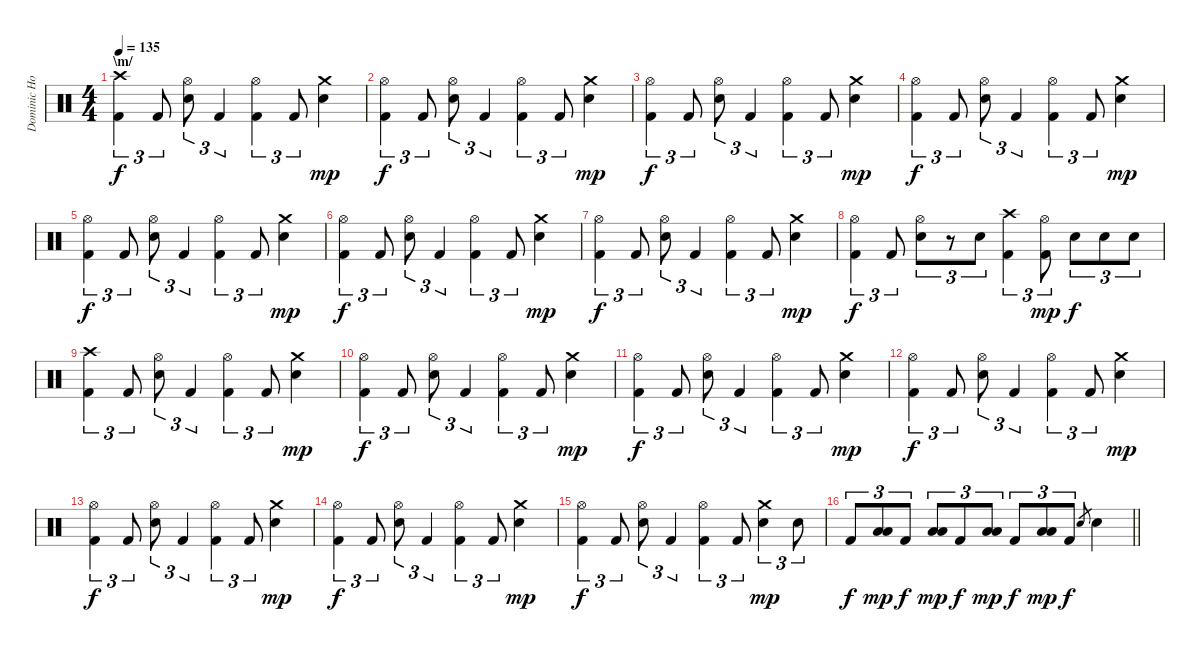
\track ("Dominic Howard (Drums)" "Dominic Ho") {instrument percussion}
\staff {score}
\articulation defaults
\ts (4 4)
\section ("" "\\m/")
\tempo 135
\clef neutral
\ks c
("Crash high (hit)" "Kick (hit) 2").4{tu (3 2) dy f} "Kick (hit) 2".8{tu (3 2)} ("Hi-Hat (open)" "Electric Snare (hit)").8{tu (3 2)} "Kick (hit) 2".4{tu (3 2)} ("Hi-Hat (open)" "Kick (hit) 2").4{tu (3 2)} "Kick (hit) 2".8{tu (3 2)} ("Crash medium (hit)" "Electric Snare (hit)").4{dy mp} |
("Hi-Hat (open)" "Kick (hit) 2").4{tu (3 2) dy f} "Kick (hit) 2".8{tu (3 2)} ("Hi-Hat (open)" "Electric Snare (hit)").8{tu (3 2)} "Kick (hit) 2".4{tu (3 2)} ("Hi-Hat (open)" "Kick (hit) 2").4{tu (3 2)} "Kick (hit) 2".8{tu (3 2)} ("Crash medium (hit)" "Electric Snare (hit)").4{dy mp} |
("Hi-Hat (open)" "Kick (hit) 2").4{tu (3 2) dy f} "Kick (hit) 2".8{tu (3 2)} ("Hi-Hat (open)" "Electric Snare (hit)").8{tu (3 2)} "Kick (hit) 2".4{tu (3 2)} ("Hi-Hat (open)" "Kick (hit) 2").4{tu (3 2)} "Kick (hit) 2".8{tu (3 2)} ("Crash medium (hit)" "Electric Snare (hit)").4{dy mp} |
("Hi-Hat (open)" "Kick (hit) 2").4{tu (3 2) dy f} "Kick (hit) 2".8{tu (3 2)} ("Hi-Hat (open)" "Electric Snare (hit)").8{tu (3 2)} "Kick (hit) 2".4{tu (3 2)} ("Hi-Hat (open)" "Kick (hit) 2").4{tu (3 2)} "Kick (hit) 2".8{tu (3 2)} ("Crash medium (hit)" "Electric Snare (hit)").4{dy mp} |
("Hi-Hat (open)" "Kick (hit) 2").4{tu (3 2) dy f} "Kick (hit) 2".8{tu (3 2)} ("Hi-Hat (open)" "Electric Snare (hit)").8{tu (3 2)} "Kick (hit) 2".4{tu (3 2)} ("Hi-Hat (open)" "Kick (hit) 2").4{tu (3 2)} "Kick (hit) 2".8{tu (3 2)} ("Crash medium (hit)" "Electric Snare (hit)").4{dy mp} |
("Hi-Hat (open)" "Kick (hit) 2").4{tu (3 2) dy f} "Kick (hit) 2".8{tu (3 2)} ("Hi-Hat (open)" "Electric Snare (hit)").8{tu (3 2)} "Kick (hit) 2".4{tu (3 2)} ("Hi-Hat (open)" "Kick (hit) 2").4{tu (3 2)} "Kick (hit) 2".8{tu (3 2)} ("Crash medium (hit)" "Electric Snare (hit)").4{dy mp} |
("Hi-Hat (open)" "Kick (hit) 2").4{tu (3 2) dy f} "Kick (hit) 2".8{tu (3 2)} ("Hi-Hat (open)" "Electric Snare (hit)").8{tu (3 2)} "Kick (hit) 2".4{tu (3 2)} ("Hi-Hat (open)" "Kick (hit) 2").4{tu (3 2)} "Kick (hit) 2".8{tu (3 2)} ("Crash medium (hit)" "Electric Snare (hit)").4{dy mp} |
("Hi-Hat (open)" "Kick (hit) 2").4{tu (3 2) dy f} "Kick (hit) 2".8{tu (3 2)} ("Hi-Hat (open)" "Electric Snare (hit)").8{tu (3 2)} r.8{tu (3 2)} "Electric Snare (hit)".8{tu (3 2)} ("Crash high (hit)" "Kick (hit) 2").4{tu (3 2)} ("Hi-Hat (open)" "Kick (hit) 2").8{tu (3 2) dy mp} "Electric Snare (hit)".8{tu (3 2) dy f} "Electric Snare (hit)".8{tu (3 2)} "Electric Snare (hit)".8{tu (3 2)} |
("Crash high (hit)" "Kick (hit) 2").4{tu (3 2)} "Kick (hit) 2".8{tu (3 2)} ("Hi-Hat (open)" "Electric Snare (hit)").8{tu (3 2)} "Kick (hit) 2".4{tu (3 2)} ("Hi-Hat (open)" "Kick (hit) 2").4{tu (3 2)} "Kick (hit) 2".8{tu (3 2)} ("Crash medium (hit)" "Electric Snare (hit)").4{dy mp} |
("Hi-Hat (open)" "Kick (hit) 2").4{tu (3 2) dy f} "Kick (hit) 2".8{tu (3 2)} ("Hi-Hat (open)" "Electric Snare (hit)").8{tu (3 2)} "Kick (hit) 2".4{tu (3 2)} ("Hi-Hat (open)" "Kick (hit) 2").4{tu (3 2)} "Kick (hit) 2".8{tu (3 2)} ("Crash medium (hit)" "Electric Snare (hit)").4{dy mp} |
("Hi-Hat (open)" "Kick (hit) 2").4{tu (3 2) dy f} "Kick (hit) 2".8{tu (3 2)} ("Hi-Hat (open)" "Electric Snare (hit)").8{tu (3 2)} "Kick (hit) 2".4{tu (3 2)} ("Hi-Hat (open)" "Kick (hit) 2").4{tu (3 2)} "Kick (hit) 2".8{tu (3 2)} ("Crash medium (hit)" "Electric Snare (hit)").4{dy mp} |
("Hi-Hat (open)" "Kick (hit) 2").4{tu (3 2) dy f} "Kick (hit) 2".8{tu (3 2)} ("Hi-Hat (open)" "Electric Snare (hit)").8{tu (3 2)} "Kick (hit) 2".4{tu (3 2)} ("Hi-Hat (open)" "Kick (hit) 2").4{tu (3 2)} "Kick (hit) 2".8{tu (3 2)} ("Crash medium (hit)" "Electric Snare (hit)").4{dy mp} |
("Hi-Hat (open)" "Kick (hit) 2").4{tu (3 2) dy f} "Kick (hit) 2".8{tu (3 2)} ("Hi-Hat (open)" "Electric Snare (hit)").8{tu (3 2)} "Kick (hit) 2".4{tu (3 2)} ("Hi-Hat (open)" "Kick (hit) 2").4{tu (3 2)} "Kick (hit) 2".8{tu (3 2)} ("Crash medium (hit)" "Electric Snare (hit)").4{dy mp} |
("Hi-Hat (open)" "Kick (hit) 2").4{tu (3 2) dy f} "Kick (hit) 2".8{tu (3 2)} ("Hi-Hat (open)" "Electric Snare (hit)").8{tu (3 2)} "Kick (hit) 2".4{tu (3 2)} ("Hi-Hat (open)" "Kick (hit) 2").4{tu (3 2)} "Kick (hit) 2".8{tu (3 2)} ("Crash medium (hit)" "Electric Snare (hit)").4{dy mp} |
("Hi-Hat (open)" "Kick (hit) 2").4{tu (3 2) dy f} "Kick (hit) 2".8{tu (3 2)} ("Hi-Hat (open)" "Electric Snare (hit)").8{tu (3 2)} "Kick (hit) 2".4{tu (3 2)} ("Hi-Hat (open)" "Kick (hit) 2").4{tu (3 2)} "Kick (hit) 2".8{tu (3 2)} ("Crash medium (hit)" "Electric Snare (hit)").4{tu (3 2) dy mp} "Electric Snare (hit)".8{tu (3 2)} |
\barLineRight lightlight "Kick (hit) 2".8{tu (3 2) dy f}
("Low Tom (hit)" "Low Floor Tom (hit)").8{tu (3 2) dy mp} "Kick (hit) 2".8{tu (3 2) dy f} ("Low Tom (hit)" "Low Floor Tom (hit)").8{tu (3 2) dy mp} "Kick (hit) 2".8{tu (3 2) dy f} ("Low Tom (hit)" "Low Floor Tom (hit)").8{tu (3 2) dy mp} "Kick (hit) 2".8{tu (3 2) dy f} ("Low Tom (hit)" "Low Floor Tom (hit)").8{tu (3 2) dy mp} "Kick (hit) 2".8{tu (3 2) dy f} "Electric Snare (hit)".8{gr} "Electric Snare (hit)".4
